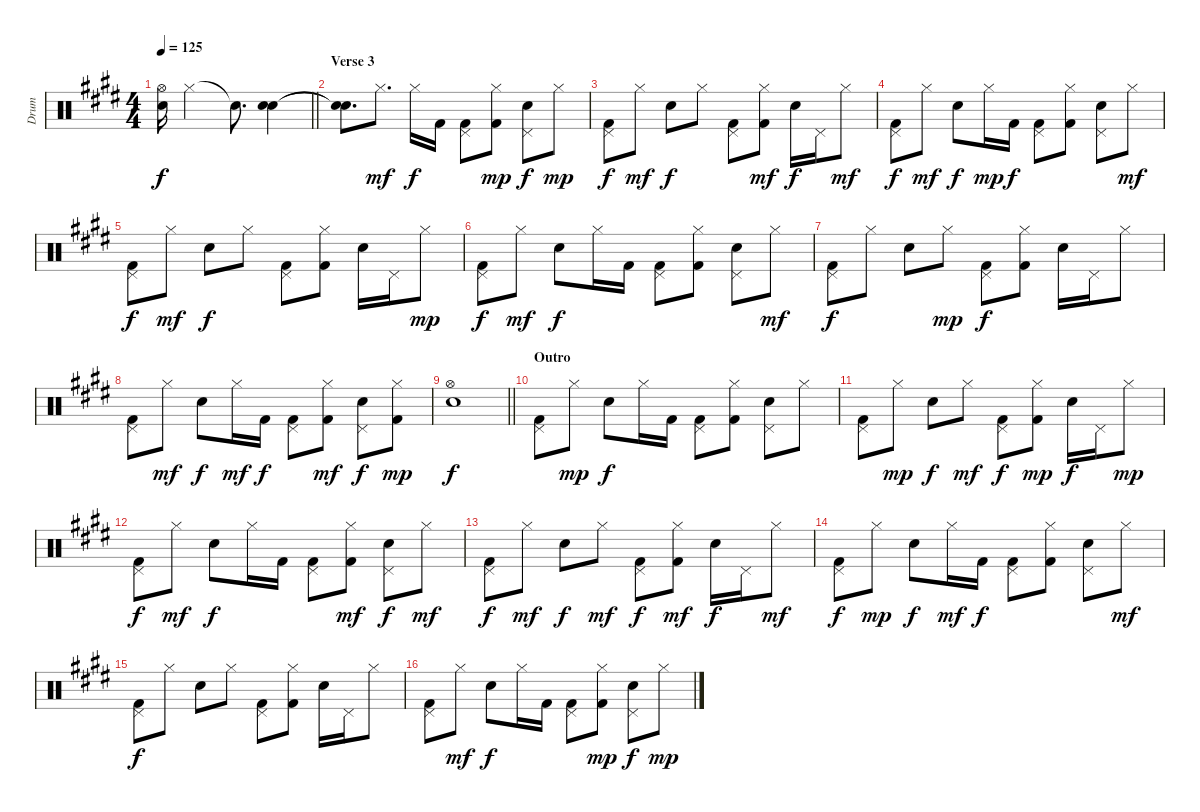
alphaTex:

\track ("Drum" "Drum") {instrument percussion}
\staff {score}
\articulation defaults
\ts (4 4)
\tempo 125
\clef neutral
\barLineRight lightlight
\ks e
("Snare (hit) 2" "Hi-Hat (open)").16{dy f} "Hi-Hat (closed)".2 "Snare (hit)"{t}.8{d} ("Metronome (bell)" "Snare (hit) 2").4 |
\section ("" "Verse 3")
("Snare (hit)"{t} "Snare (hit)"{t}).8{d} "Hi-Hat (closed)".8{d dy mf} "Hi-Hat (closed)".16{dy f} "Kick (hit) 2".16 ("Kick (hit) 2" "Pedal Hi-Hat (hit)").8 ("Kick (hit) 2" "Hi-Hat (closed)").8{dy mp} ("Snare (hit) 2" "Pedal Hi-Hat (hit)").8{dy f} "Hi-Hat (closed)".8{dy mp} |
("Kick (hit) 2" "Pedal Hi-Hat (hit)").8{dy f} "Hi-Hat (closed)".8{dy mf} "Snare (hit) 2".8{dy f} "Hi-Hat (closed)".8 ("Kick (hit) 2" "Pedal Hi-Hat (hit)").8 ("Kick (hit) 2" "Hi-Hat (closed)").8{dy mf} "Snare (hit) 2".16{dy f} "Pedal Hi-Hat (hit)".16 "Hi-Hat (closed)".8{dy mf} |
("Kick (hit) 2" "Pedal Hi-Hat (hit)").8{dy f} "Hi-Hat (closed)".8{dy mf} "Snare (hit) 2".8{dy f} "Hi-Hat (closed)".16{dy mp} "Kick (hit) 2".16{dy f} ("Kick (hit) 2" "Pedal Hi-Hat (hit)").8 ("Kick (hit) 2" "Hi-Hat (closed)").8 ("Snare (hit) 2" "Pedal Hi-Hat (hit)").8 "Hi-Hat (closed)".8{dy mf} |
("Kick (hit) 2" "Pedal Hi-Hat (hit)").8{dy f} "Hi-Hat (closed)".8{dy mf} "Snare (hit) 2".8{dy f} "Hi-Hat (closed)".8 ("Kick (hit) 2" "Pedal Hi-Hat (hit)").8 ("Kick (hit) 2" "Hi-Hat (closed)").8 "Snare (hit) 2".16 "Pedal Hi-Hat (hit)".16 "Hi-Hat (closed)".8{dy mp} |
("Kick (hit) 2" "Pedal Hi-Hat (hit)").8{dy f} "Hi-Hat (closed)".8{dy mf} "Snare (hit) 2".8{dy f} "Hi-Hat (closed)".16 "Kick (hit) 2".16 ("Kick (hit) 2" "Pedal Hi-Hat (hit)").8 ("Kick (hit) 2" "Hi-Hat (closed)").8 ("Snare (hit) 2" "Pedal Hi-Hat (hit)").8 "Hi-Hat (closed)".8{dy mf} |
("Kick (hit) 2" "Pedal Hi-Hat (hit)").8{dy f} "Hi-Hat (closed)".8 "Snare (hit) 2".8 "Hi-Hat (closed)".8{dy mp} ("Kick (hit) 2" "Pedal Hi-Hat (hit)").8{dy f} ("Kick (hit) 2" "Hi-Hat (closed)").8 "Snare (hit) 2".16 "Pedal Hi-Hat (hit)".16 "Hi-Hat (closed)".8 |
("Kick (hit) 2" "Pedal Hi-Hat (hit)").8 "Hi-Hat (closed)".8{dy mf} "Snare (hit) 2".8{dy f} "Hi-Hat (closed)".16{dy mf} "Kick (hit) 2".16{dy f} ("Kick (hit) 2" "Pedal Hi-Hat (hit)").8 ("Kick (hit) 2" "Hi-Hat (closed)").8{dy mf} ("Snare (hit) 2" "Pedal Hi-Hat (hit)").8{dy f} ("Kick (hit) 2" "Hi-Hat (closed)").8{dy mp} |
\barLineRight lightlight
("Snare (hit) 2" "Hi-Hat (open)").1{dy f} |
\section ("" "Outro")
("Kick (hit) 2" "Pedal Hi-Hat (hit)").8 "Hi-Hat (closed)".8{dy mp} "Snare (hit) 2".8{dy f} "Hi-Hat (closed)".16 "Kick (hit) 2".16 ("Kick (hit) 2" "Pedal Hi-Hat (hit)").8 ("Kick (hit) 2" "Hi-Hat (closed)").8 ("Snare (hit) 2" "Pedal Hi-Hat (hit)").8 "Hi-Hat (closed)".8 |
("Kick (hit) 2" "Pedal Hi-Hat (hit)").8 "Hi-Hat (closed)".8{dy mp} "Snare (hit) 2".8{dy f} "Hi-Hat (closed)".8{dy mf} ("Kick (hit) 2" "Pedal Hi-Hat (hit)").8{dy f} ("Kick (hit) 2" "Hi-Hat (closed)").8{dy mp} "Snare (hit) 2".16{dy f} "Pedal Hi-Hat (hit)".16 "Hi-Hat (closed)".8{dy mp} |
("Kick (hit) 2" "Pedal Hi-Hat (hit)").8{dy f} "Hi-Hat (closed)".8{dy mf} "Snare (hit) 2".8{dy f} "Hi-Hat (closed)".16 "Kick (hit) 2".16 ("Kick (hit) 2" "Pedal Hi-Hat (hit)").8 ("Kick (hit) 2" "Hi-Hat (closed)").8{dy mf} ("Snare (hit) 2" "Pedal Hi-Hat (hit)").8{dy f} "Hi-Hat (closed)".8{dy mf} |
("Kick (hit) 2" "Pedal Hi-Hat (hit)").8{dy f} "Hi-Hat (closed)".8{dy mf} "Snare (hit) 2".8{dy f} "Hi-Hat (closed)".8{dy mf} ("Kick (hit) 2" "Pedal Hi-Hat (hit)").8{dy f} ("Kick (hit) 2" "Hi-Hat (closed)").8{dy mf} "Snare (hit) 2".16{dy f} "Pedal Hi-Hat (hit)".16 "Hi-Hat (closed)".8{dy mf} |
("Kick (hit) 2" "Pedal Hi-Hat (hit)").8{dy f} "Hi-Hat (closed)".8{dy mp} "Snare (hit) 2".8{dy f} "Hi-Hat (closed)".16{dy mf} "Kick (hit) 2".16{dy f} ("Kick (hit) 2" "Pedal Hi-Hat (hit)").8 ("Kick (hit) 2" "Hi-Hat (closed)").8 ("Snare (hit) 2" "Pedal Hi-Hat (hit)").8 "Hi-Hat (closed)".8{dy mf} |
("Kick (hit) 2" "Pedal Hi-Hat (hit)").8{dy f} "Hi-Hat (closed)".8 "Snare (hit) 2".8 "Hi-Hat (closed)".8 ("Kick (hit) 2" "Pedal Hi-Hat (hit)").8 ("Kick (hit) 2" "Hi-Hat (closed)").8 "Snare (hit) 2".16 "Pedal Hi-Hat (hit)".16 "Hi-Hat (closed)".8 |
("Kick (hit) 2" "Pedal Hi-Hat (hit)").8 "Hi-Hat (closed)".8{dy mf} "Snare (hit) 2".8{dy f} "Hi-Hat (closed)".16 "Kick (hit) 2".16 ("Kick (hit) 2" "Pedal Hi-Hat (hit)").8 ("Kick (hit) 2" "Hi-Hat (closed)").8{dy mp} ("Snare (hit) 2" "Pedal Hi-Hat (hit)").8{dy f} "Hi-Hat (closed)".8{dy mp}
